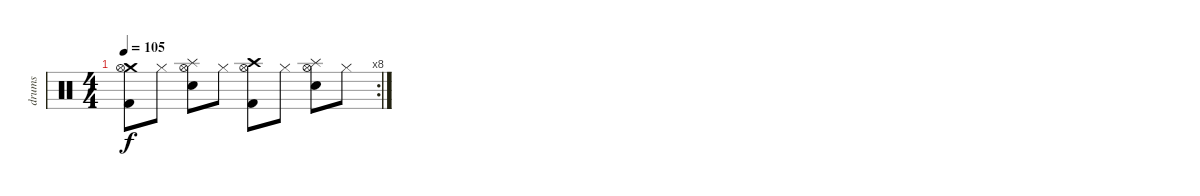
\track ("drums" "drums") {instrument percussion}
\staff {score}
\articulation defaults
\rc 8
\ts (4 4)
\tempo 105
\clef neutral
\ks c
("Crash medium (hit)" "Hi-Hat (open)" "Kick (hit) 2").8{dy f} "Hi-Hat (closed)".8 ("Splash (hit)" "Hi-Hat (open)" "Electric Snare (hit)").8 "Hi-Hat (closed)".8 ("Crash high (hit)" "Hi-Hat (open)" "Kick (hit) 2").8 "Hi-Hat (closed)".8 ("Splash (hit)" "Hi-Hat (open)" "Electric Snare (hit)").8 "Hi-Hat (closed)".8
